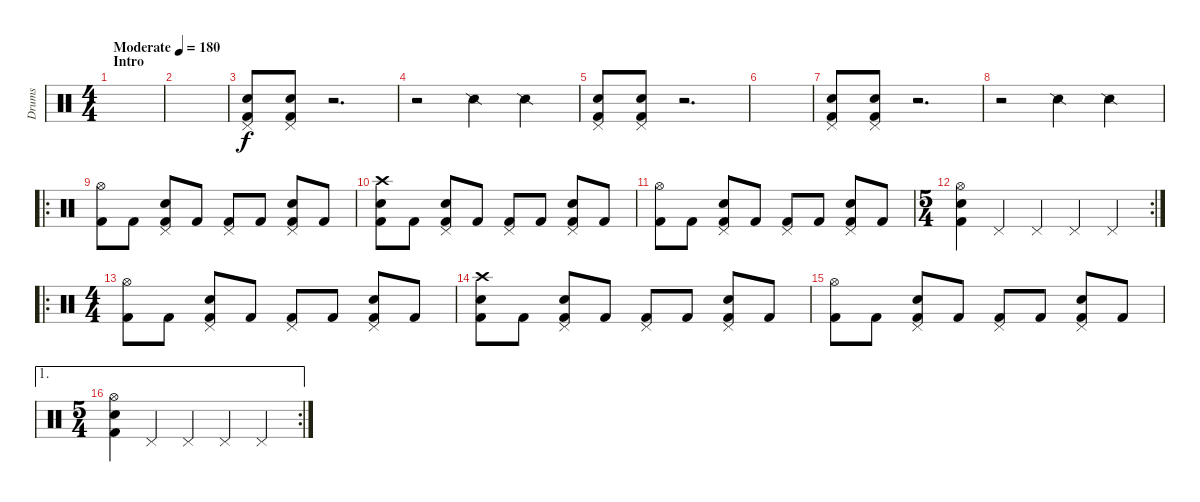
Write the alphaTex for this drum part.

\track ("Drums" "Drums") {instrument percussion}
\staff {score}
\articulation defaults
\ts (4 4)
\section ("" "Intro")
\tempo (180 "Moderate")
\clef neutral
\ks c
|
|
("Pedal Hi-Hat (hit)" "Snare (hit) 2" "Kick (hit) 2").8 ("Pedal Hi-Hat (hit)" "Snare (hit) 2" "Kick (hit) 2").8 r.2{d} |
r.2 "Snare (side stick) 2".4 "Snare (side stick) 2".4 |
("Pedal Hi-Hat (hit)" "Snare (hit) 2" "Kick (hit) 2").8 ("Pedal Hi-Hat (hit)" "Snare (hit) 2" "Kick (hit) 2").8 r.2{d} |
|
("Pedal Hi-Hat (hit)" "Snare (hit) 2" "Kick (hit) 2").8 ("Pedal Hi-Hat (hit)" "Snare (hit) 2" "Kick (hit) 2").8 r.2{d} |
r.2 "Snare (side stick) 2".4 "Snare (side stick) 2".4 |
\ro
("Hi-Hat (open)" "Kick (hit) 2").8 "Kick (hit) 2".8 ("Pedal Hi-Hat (hit)" "Snare (hit) 2" "Kick (hit) 2").8 "Kick (hit) 2".8 ("Pedal Hi-Hat (hit)" "Kick (hit) 2").8 "Kick (hit) 2".8 ("Pedal Hi-Hat (hit)" "Snare (hit) 2" "Kick (hit) 2").8 "Kick (hit) 2".8 |
("Crash high (hit)" "Snare (hit) 2" "Kick (hit) 2").8 "Kick (hit) 2".8 ("Pedal Hi-Hat (hit)" "Snare (hit) 2" "Kick (hit) 2").8 "Kick (hit) 2".8 ("Pedal Hi-Hat (hit)" "Kick (hit) 2").8 "Kick (hit) 2".8 ("Pedal Hi-Hat (hit)" "Snare (hit) 2" "Kick (hit) 2").8 "Kick (hit) 2".8 |
("Hi-Hat (open)" "Kick (hit) 2").8 "Kick (hit) 2".8 ("Pedal Hi-Hat (hit)" "Snare (hit) 2" "Kick (hit) 2").8 "Kick (hit) 2".8 ("Pedal Hi-Hat (hit)" "Kick (hit) 2").8 "Kick (hit) 2".8 ("Pedal Hi-Hat (hit)" "Snare (hit) 2" "Kick (hit) 2").8 "Kick (hit) 2".8 |
\rc 2
\ts (5 4)
("Hi-Hat (open)" "Snare (hit) 2" "Kick (hit) 2").4 "Pedal Hi-Hat (hit)".4 "Pedal Hi-Hat (hit)".4 "Pedal Hi-Hat (hit)".4 "Pedal Hi-Hat (hit)".4 |
\ro
\ts (4 4)
("Hi-Hat (open)" "Kick (hit) 2").8 "Kick (hit) 2".8 ("Pedal Hi-Hat (hit)" "Snare (hit) 2" "Kick (hit) 2").8 "Kick (hit) 2".8 ("Pedal Hi-Hat (hit)" "Kick (hit) 2").8 "Kick (hit) 2".8 ("Pedal Hi-Hat (hit)" "Snare (hit) 2" "Kick (hit) 2").8 "Kick (hit) 2".8 |
("Crash high (hit)" "Snare (hit) 2" "Kick (hit) 2").8 "Kick (hit) 2".8 ("Pedal Hi-Hat (hit)" "Snare (hit) 2" "Kick (hit) 2").8 "Kick (hit) 2".8 ("Pedal Hi-Hat (hit)" "Kick (hit) 2").8 "Kick (hit) 2".8 ("Pedal Hi-Hat (hit)" "Snare (hit) 2" "Kick (hit) 2").8 "Kick (hit) 2".8 |
("Hi-Hat (open)" "Kick (hit) 2").8 "Kick (hit) 2".8 ("Pedal Hi-Hat (hit)" "Snare (hit) 2" "Kick (hit) 2").8 "Kick (hit) 2".8 ("Pedal Hi-Hat (hit)" "Kick (hit) 2").8 "Kick (hit) 2".8 ("Pedal Hi-Hat (hit)" "Snare (hit) 2" "Kick (hit) 2").8 "Kick (hit) 2".8 |
\ae 1
\rc 2
\ts (5 4)
("Hi-Hat (open)" "Snare (hit) 2" "Kick (hit) 2").4 "Pedal Hi-Hat (hit)".4 "Pedal Hi-Hat (hit)".4 "Pedal Hi-Hat (hit)".4 "Pedal Hi-Hat (hit)".4
